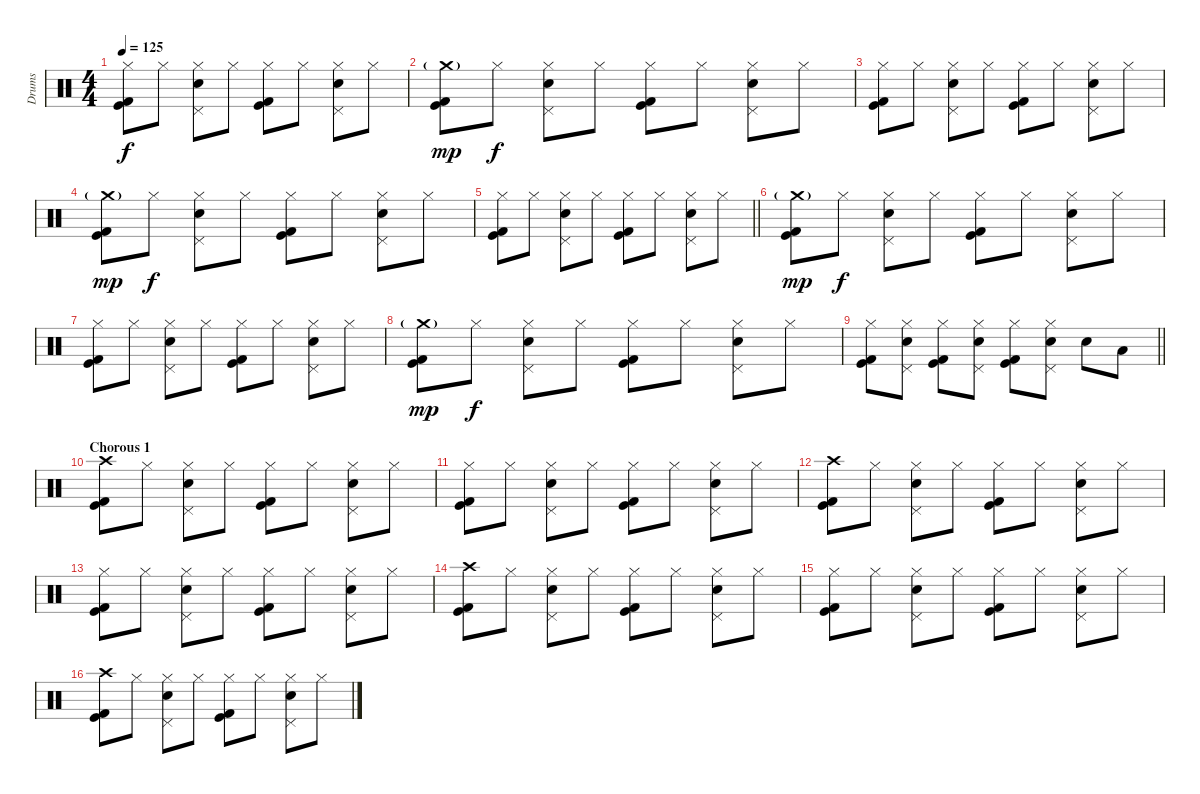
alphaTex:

\track ("Drums" "Drums") {instrument percussion}
\staff {score}
\articulation defaults
\ts (4 4)
\tempo 125
\clef neutral
\ks c
("Hi-Hat (closed)" "Kick (hit)" "Kick (hit) 2").8{dy f} "Hi-Hat (closed)".8 ("Hi-Hat (closed)" "Pedal Hi-Hat (hit)" "Electric Snare (hit)").8 "Hi-Hat (closed)".8 ("Hi-Hat (closed)" "Kick (hit)" "Kick (hit) 2").8 "Hi-Hat (closed)".8 ("Hi-Hat (closed)" "Pedal Hi-Hat (hit)" "Electric Snare (hit)").8 "Hi-Hat (closed)".8 |
("Crash medium (hit)"{g} "Kick (hit)" "Kick (hit) 2").8{dy mp} "Hi-Hat (closed)".8{dy f} ("Hi-Hat (closed)" "Pedal Hi-Hat (hit)" "Electric Snare (hit)").8 "Hi-Hat (closed)".8 ("Hi-Hat (closed)" "Kick (hit)" "Kick (hit) 2").8 "Hi-Hat (closed)".8 ("Hi-Hat (closed)" "Pedal Hi-Hat (hit)" "Electric Snare (hit)").8 "Hi-Hat (closed)".8 |
("Hi-Hat (closed)" "Kick (hit)" "Kick (hit) 2").8 "Hi-Hat (closed)".8 ("Hi-Hat (closed)" "Pedal Hi-Hat (hit)" "Electric Snare (hit)").8 "Hi-Hat (closed)".8 ("Hi-Hat (closed)" "Kick (hit)" "Kick (hit) 2").8 "Hi-Hat (closed)".8 ("Hi-Hat (closed)" "Pedal Hi-Hat (hit)" "Electric Snare (hit)").8 "Hi-Hat (closed)".8 |
("Crash medium (hit)"{g} "Kick (hit)" "Kick (hit) 2").8{dy mp} "Hi-Hat (closed)".8{dy f} ("Hi-Hat (closed)" "Pedal Hi-Hat (hit)" "Electric Snare (hit)").8 "Hi-Hat (closed)".8 ("Hi-Hat (closed)" "Kick (hit)" "Kick (hit) 2").8 "Hi-Hat (closed)".8 ("Hi-Hat (closed)" "Pedal Hi-Hat (hit)" "Electric Snare (hit)").8 "Hi-Hat (closed)".8 |
\barLineRight lightlight
("Hi-Hat (closed)" "Kick (hit)" "Kick (hit) 2").8 "Hi-Hat (closed)".8 ("Hi-Hat (closed)" "Pedal Hi-Hat (hit)" "Electric Snare (hit)").8 "Hi-Hat (closed)".8 ("Hi-Hat (closed)" "Kick (hit)" "Kick (hit) 2").8 "Hi-Hat (closed)".8 ("Hi-Hat (closed)" "Pedal Hi-Hat (hit)" "Electric Snare (hit)").8 "Hi-Hat (closed)".8 |
\section ("" "")
("Crash medium (hit)"{g} "Kick (hit)" "Kick (hit) 2").8{dy mp} "Hi-Hat (closed)".8{dy f} ("Hi-Hat (closed)" "Pedal Hi-Hat (hit)" "Electric Snare (hit)").8 "Hi-Hat (closed)".8 ("Hi-Hat (closed)" "Kick (hit)" "Kick (hit) 2").8 "Hi-Hat (closed)".8 ("Hi-Hat (closed)" "Pedal Hi-Hat (hit)" "Electric Snare (hit)").8 "Hi-Hat (closed)".8 |
("Hi-Hat (closed)" "Kick (hit)" "Kick (hit) 2").8 "Hi-Hat (closed)".8 ("Hi-Hat (closed)" "Pedal Hi-Hat (hit)" "Electric Snare (hit)").8 "Hi-Hat (closed)".8 ("Hi-Hat (closed)" "Kick (hit)" "Kick (hit) 2").8 "Hi-Hat (closed)".8 ("Hi-Hat (closed)" "Pedal Hi-Hat (hit)" "Electric Snare (hit)").8 "Hi-Hat (closed)".8 |
("Crash medium (hit)"{g} "Kick (hit)" "Kick (hit) 2").8{dy mp} "Hi-Hat (closed)".8{dy f} ("Hi-Hat (closed)" "Pedal Hi-Hat (hit)" "Electric Snare (hit)").8 "Hi-Hat (closed)".8 ("Hi-Hat (closed)" "Kick (hit)" "Kick (hit) 2").8 "Hi-Hat (closed)".8 ("Hi-Hat (closed)" "Pedal Hi-Hat (hit)" "Electric Snare (hit)").8 "Hi-Hat (closed)".8 |
\barLineRight lightlight
("Hi-Hat (closed)" "Kick (hit)" "Kick (hit) 2").8 ("Hi-Hat (closed)" "Pedal Hi-Hat (hit)" "Electric Snare (hit)").8 ("Hi-Hat (closed)" "Kick (hit)" "Kick (hit) 2").8 ("Hi-Hat (closed)" "Pedal Hi-Hat (hit)" "Electric Snare (hit)").8 ("Hi-Hat (closed)" "Kick (hit)" "Kick (hit) 2").8 ("Hi-Hat (closed)" "Pedal Hi-Hat (hit)" "Electric Snare (hit)").8 "Electric Snare (hit)".8 "Low Tom (hit)".8 |
\section ("" "Chorous 1")
("Crash high (hit)" "Kick (hit)" "Kick (hit) 2").8 "Hi-Hat (closed)".8 ("Hi-Hat (closed)" "Pedal Hi-Hat (hit)" "Electric Snare (hit)").8 "Hi-Hat (closed)".8 ("Hi-Hat (closed)" "Kick (hit)" "Kick (hit) 2").8 "Hi-Hat (closed)".8 ("Hi-Hat (closed)" "Pedal Hi-Hat (hit)" "Electric Snare (hit)").8 "Hi-Hat (closed)".8 |
("Hi-Hat (closed)" "Kick (hit)" "Kick (hit) 2").8 "Hi-Hat (closed)".8 ("Hi-Hat (closed)" "Pedal Hi-Hat (hit)" "Electric Snare (hit)").8 "Hi-Hat (closed)".8 ("Hi-Hat (closed)" "Kick (hit)" "Kick (hit) 2").8 "Hi-Hat (closed)".8 ("Hi-Hat (closed)" "Pedal Hi-Hat (hit)" "Electric Snare (hit)").8 "Hi-Hat (closed)".8 |
("Crash high (hit)" "Kick (hit)" "Kick (hit) 2").8 "Hi-Hat (closed)".8 ("Hi-Hat (closed)" "Pedal Hi-Hat (hit)" "Electric Snare (hit)").8 "Hi-Hat (closed)".8 ("Hi-Hat (closed)" "Kick (hit)" "Kick (hit) 2").8 "Hi-Hat (closed)".8 ("Hi-Hat (closed)" "Pedal Hi-Hat (hit)" "Electric Snare (hit)").8 "Hi-Hat (closed)".8 |
("Hi-Hat (closed)" "Kick (hit)" "Kick (hit) 2").8 "Hi-Hat (closed)".8 ("Hi-Hat (closed)" "Pedal Hi-Hat (hit)" "Electric Snare (hit)").8 "Hi-Hat (closed)".8 ("Hi-Hat (closed)" "Kick (hit)" "Kick (hit) 2").8 "Hi-Hat (closed)".8 ("Hi-Hat (closed)" "Pedal Hi-Hat (hit)" "Electric Snare (hit)").8 "Hi-Hat (closed)".8 |
("Crash high (hit)" "Kick (hit)" "Kick (hit) 2").8 "Hi-Hat (closed)".8 ("Hi-Hat (closed)" "Pedal Hi-Hat (hit)" "Electric Snare (hit)").8 "Hi-Hat (closed)".8 ("Hi-Hat (closed)" "Kick (hit)" "Kick (hit) 2").8 "Hi-Hat (closed)".8 ("Hi-Hat (closed)" "Pedal Hi-Hat (hit)" "Electric Snare (hit)").8 "Hi-Hat (closed)".8 |
("Hi-Hat (closed)" "Kick (hit)" "Kick (hit) 2").8 "Hi-Hat (closed)".8 ("Hi-Hat (closed)" "Pedal Hi-Hat (hit)" "Electric Snare (hit)").8 "Hi-Hat (closed)".8 ("Hi-Hat (closed)" "Kick (hit)" "Kick (hit) 2").8 "Hi-Hat (closed)".8 ("Hi-Hat (closed)" "Pedal Hi-Hat (hit)" "Electric Snare (hit)").8 "Hi-Hat (closed)".8 |
("Crash high (hit)" "Kick (hit)" "Kick (hit) 2").8 "Hi-Hat (closed)".8 ("Hi-Hat (closed)" "Pedal Hi-Hat (hit)" "Electric Snare (hit)").8 "Hi-Hat (closed)".8 ("Hi-Hat (closed)" "Kick (hit)" "Kick (hit) 2").8 "Hi-Hat (closed)".8 ("Hi-Hat (closed)" "Pedal Hi-Hat (hit)" "Electric Snare (hit)").8 "Hi-Hat (closed)".8
